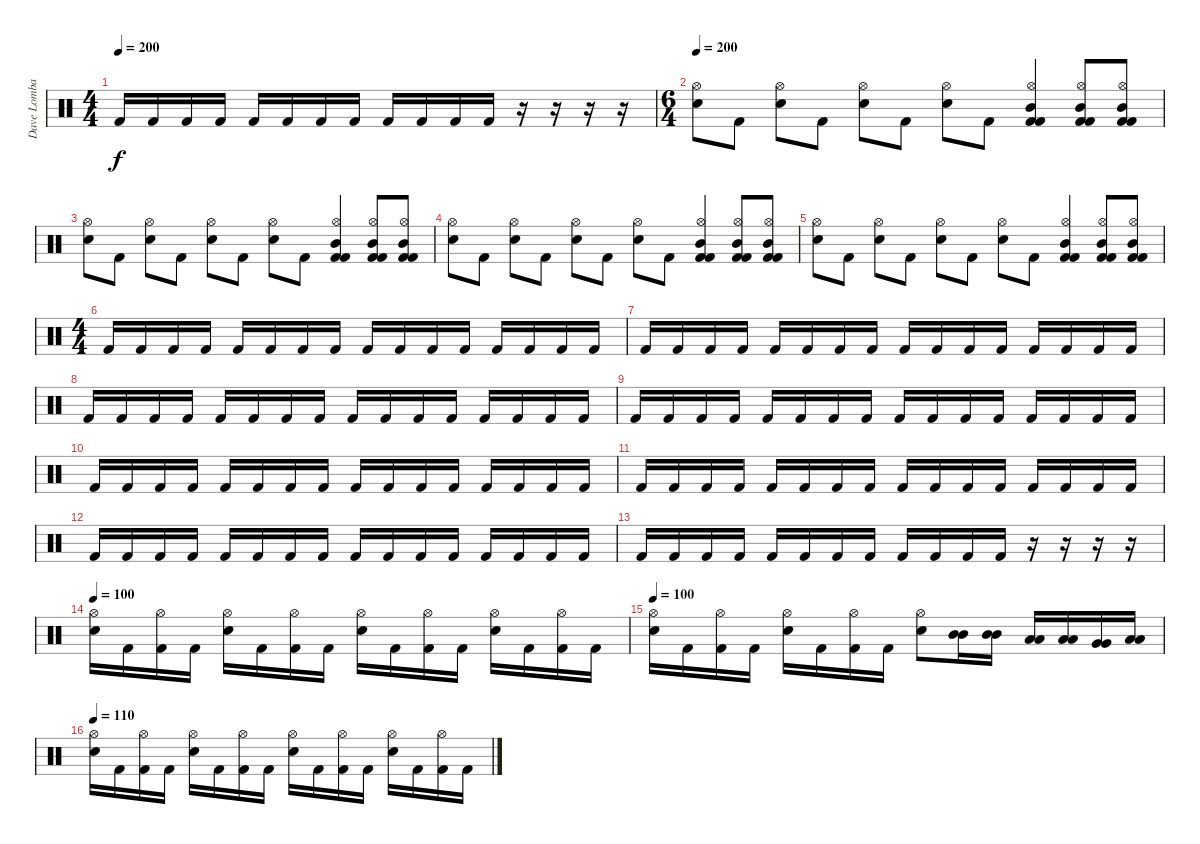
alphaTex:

\track ("Dave Lombardo:" "Dave Lomba") {instrument percussion}
\staff {score}
\articulation defaults
\ts (4 4)
\tempo 200
\clef neutral
\ks c "Kick (hit) 2".16{dy f} "Kick (hit) 2".16 "Kick (hit) 2".16 "Kick (hit) 2".16 "Kick (hit) 2".16 "Kick (hit) 2".16 "Kick (hit) 2".16 "Kick (hit) 2".16 "Kick (hit) 2".16 "Kick (hit) 2".16 "Kick (hit) 2".16 "Kick (hit) 2".16
r.16 r.16 r.16 r.16 |
\ts (6 4)
\tempo 200
("Hi-Hat (open)" "Electric Snare (hit)").8 "Kick (hit) 2".8 ("Hi-Hat (open)" "Electric Snare (hit)").8 "Kick (hit) 2".8 ("Hi-Hat (open)" "Electric Snare (hit)").8 "Kick (hit) 2".8 ("Hi-Hat (open)" "Electric Snare (hit)").8 "Kick (hit) 2".8 ("Hi-Hat (open)" "Mid Tom (hit)" "Kick (hit) 2" "Kick (hit) 2").4 ("Hi-Hat (open)" "Mid Tom (hit)" "Kick (hit) 2" "Kick (hit) 2").8 ("Hi-Hat (open)" "Mid Tom (hit)" "Kick (hit) 2" "Kick (hit) 2").8 |
("Hi-Hat (open)" "Electric Snare (hit)").8 "Kick (hit) 2".8 ("Hi-Hat (open)" "Electric Snare (hit)").8 "Kick (hit) 2".8 ("Hi-Hat (open)" "Electric Snare (hit)").8 "Kick (hit) 2".8 ("Hi-Hat (open)" "Electric Snare (hit)").8 "Kick (hit) 2".8 ("Hi-Hat (open)" "Mid Tom (hit)" "Kick (hit) 2" "Kick (hit) 2").4 ("Hi-Hat (open)" "Mid Tom (hit)" "Kick (hit) 2" "Kick (hit) 2").8 ("Hi-Hat (open)" "Mid Tom (hit)" "Kick (hit) 2" "Kick (hit) 2").8 |
("Hi-Hat (open)" "Electric Snare (hit)").8 "Kick (hit) 2".8 ("Hi-Hat (open)" "Electric Snare (hit)").8 "Kick (hit) 2".8 ("Hi-Hat (open)" "Electric Snare (hit)").8 "Kick (hit) 2".8 ("Hi-Hat (open)" "Electric Snare (hit)").8 "Kick (hit) 2".8 ("Hi-Hat (open)" "Mid Tom (hit)" "Kick (hit) 2" "Kick (hit) 2").4 ("Hi-Hat (open)" "Mid Tom (hit)" "Kick (hit) 2" "Kick (hit) 2").8 ("Hi-Hat (open)" "Mid Tom (hit)" "Kick (hit) 2" "Kick (hit) 2").8 |
("Hi-Hat (open)" "Electric Snare (hit)").8 "Kick (hit) 2".8 ("Hi-Hat (open)" "Electric Snare (hit)").8 "Kick (hit) 2".8 ("Hi-Hat (open)" "Electric Snare (hit)").8 "Kick (hit) 2".8 ("Hi-Hat (open)" "Electric Snare (hit)").8 "Kick (hit) 2".8 ("Hi-Hat (open)" "Mid Tom (hit)" "Kick (hit) 2" "Kick (hit) 2").4 ("Hi-Hat (open)" "Mid Tom (hit)" "Kick (hit) 2" "Kick (hit) 2").8 ("Hi-Hat (open)" "Mid Tom (hit)" "Kick (hit) 2" "Kick (hit) 2").8 |
\ts (4 4)
"Kick (hit) 2".16 "Kick (hit) 2".16 "Kick (hit) 2".16 "Kick (hit) 2".16 "Kick (hit) 2".16 "Kick (hit) 2".16 "Kick (hit) 2".16 "Kick (hit) 2".16 "Kick (hit) 2".16 "Kick (hit) 2".16 "Kick (hit) 2".16 "Kick (hit) 2".16 "Kick (hit) 2".16 "Kick (hit) 2".16 "Kick (hit) 2".16 "Kick (hit) 2".16 |
"Kick (hit) 2".16 "Kick (hit) 2".16 "Kick (hit) 2".16 "Kick (hit) 2".16 "Kick (hit) 2".16 "Kick (hit) 2".16 "Kick (hit) 2".16 "Kick (hit) 2".16 "Kick (hit) 2".16 "Kick (hit) 2".16 "Kick (hit) 2".16 "Kick (hit) 2".16 "Kick (hit) 2".16 "Kick (hit) 2".16 "Kick (hit) 2".16 "Kick (hit) 2".16 |
"Kick (hit) 2".16 "Kick (hit) 2".16 "Kick (hit) 2".16 "Kick (hit) 2".16 "Kick (hit) 2".16 "Kick (hit) 2".16 "Kick (hit) 2".16 "Kick (hit) 2".16 "Kick (hit) 2".16 "Kick (hit) 2".16 "Kick (hit) 2".16 "Kick (hit) 2".16 "Kick (hit) 2".16 "Kick (hit) 2".16 "Kick (hit) 2".16 "Kick (hit) 2".16 |
"Kick (hit) 2".16 "Kick (hit) 2".16 "Kick (hit) 2".16 "Kick (hit) 2".16 "Kick (hit) 2".16 "Kick (hit) 2".16 "Kick (hit) 2".16 "Kick (hit) 2".16 "Kick (hit) 2".16 "Kick (hit) 2".16 "Kick (hit) 2".16 "Kick (hit) 2".16 "Kick (hit) 2".16 "Kick (hit) 2".16 "Kick (hit) 2".16 "Kick (hit) 2".16 |
"Kick (hit) 2".16 "Kick (hit) 2".16 "Kick (hit) 2".16 "Kick (hit) 2".16 "Kick (hit) 2".16 "Kick (hit) 2".16 "Kick (hit) 2".16 "Kick (hit) 2".16 "Kick (hit) 2".16 "Kick (hit) 2".16 "Kick (hit) 2".16 "Kick (hit) 2".16 "Kick (hit) 2".16 "Kick (hit) 2".16 "Kick (hit) 2".16 "Kick (hit) 2".16 |
"Kick (hit) 2".16 "Kick (hit) 2".16 "Kick (hit) 2".16 "Kick (hit) 2".16 "Kick (hit) 2".16 "Kick (hit) 2".16 "Kick (hit) 2".16 "Kick (hit) 2".16 "Kick (hit) 2".16 "Kick (hit) 2".16 "Kick (hit) 2".16 "Kick (hit) 2".16 "Kick (hit) 2".16 "Kick (hit) 2".16 "Kick (hit) 2".16 "Kick (hit) 2".16 |
"Kick (hit) 2".16 "Kick (hit) 2".16 "Kick (hit) 2".16 "Kick (hit) 2".16 "Kick (hit) 2".16 "Kick (hit) 2".16 "Kick (hit) 2".16 "Kick (hit) 2".16 "Kick (hit) 2".16 "Kick (hit) 2".16 "Kick (hit) 2".16 "Kick (hit) 2".16 "Kick (hit) 2".16 "Kick (hit) 2".16 "Kick (hit) 2".16 "Kick (hit) 2".16 |
"Kick (hit) 2".16 "Kick (hit) 2".16 "Kick (hit) 2".16 "Kick (hit) 2".16 "Kick (hit) 2".16 "Kick (hit) 2".16 "Kick (hit) 2".16 "Kick (hit) 2".16 "Kick (hit) 2".16 "Kick (hit) 2".16 "Kick (hit) 2".16 "Kick (hit) 2".16 r.16 r.16 r.16 r.16 |
\tempo 100
("Hi-Hat (open)" "Electric Snare (hit)").16 "Kick (hit) 2".16 ("Hi-Hat (open)" "Kick (hit) 2").16 "Kick (hit) 2".16 ("Hi-Hat (open)" "Electric Snare (hit)").16 "Kick (hit) 2".16 ("Hi-Hat (open)" "Kick (hit) 2").16 "Kick (hit) 2".16 ("Hi-Hat (open)" "Electric Snare (hit)").16 "Kick (hit) 2".16 ("Hi-Hat (open)" "Kick (hit) 2").16 "Kick (hit) 2".16 ("Hi-Hat (open)" "Electric Snare (hit)").16 "Kick (hit) 2".16 ("Hi-Hat (open)" "Kick (hit) 2").16 "Kick (hit) 2".16 |
\tempo 100
("Hi-Hat (open)" "Electric Snare (hit)").16 "Kick (hit) 2".16 ("Hi-Hat (open)" "Kick (hit) 2").16 "Kick (hit) 2".16 ("Hi-Hat (open)" "Electric Snare (hit)").16 "Kick (hit) 2".16 ("Hi-Hat (open)" "Kick (hit) 2").16 "Kick (hit) 2".16 ("Hi-Hat (open)" "Electric Snare (hit)").8 ("Mid Tom (hit)" "Mid Tom (hit)").16 ("Mid Tom (hit)" "Mid Tom (hit)").16 ("Low Tom (hit)" "Low Tom (hit)").16 ("Low Tom (hit)" "Low Tom (hit)").16 ("Very Low Tom (hit)" "Very Low Tom (hit)").16 ("Low Floor Tom (hit)" "Low Floor Tom (hit)").16 |
\tempo 110
("Hi-Hat (open)" "Electric Snare (hit)").16 "Kick (hit) 2".16 ("Hi-Hat (open)" "Kick (hit) 2").16 "Kick (hit) 2".16 ("Hi-Hat (open)" "Electric Snare (hit)").16 "Kick (hit) 2".16 ("Hi-Hat (open)" "Kick (hit) 2").16 "Kick (hit) 2".16 ("Hi-Hat (open)" "Electric Snare (hit)").16 "Kick (hit) 2".16 ("Hi-Hat (open)" "Kick (hit) 2").16 "Kick (hit) 2".16 ("Hi-Hat (open)" "Electric Snare (hit)").16 "Kick (hit) 2".16 ("Hi-Hat (open)" "Kick (hit) 2").16 "Kick (hit) 2".16
